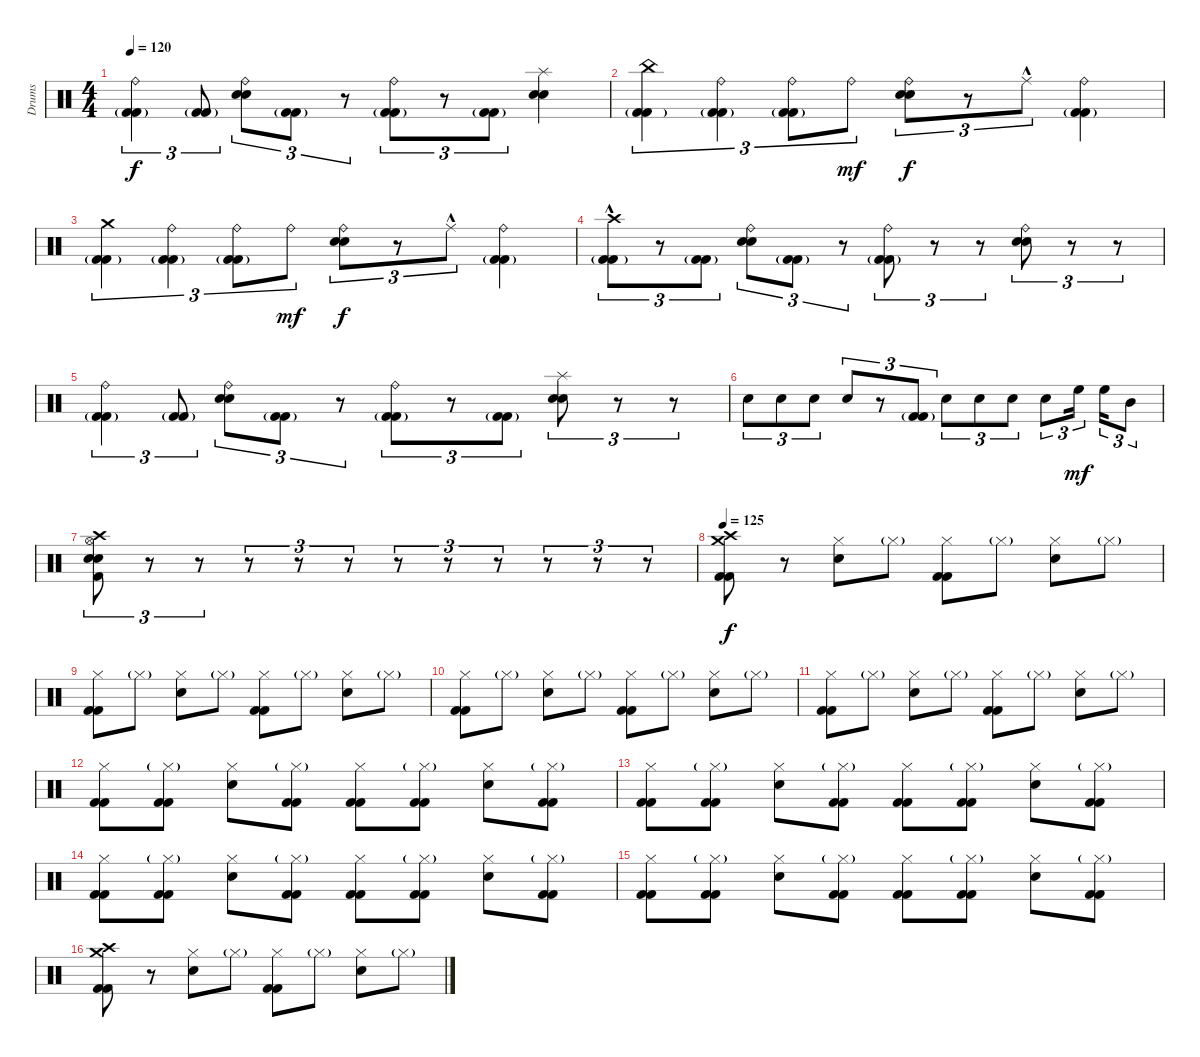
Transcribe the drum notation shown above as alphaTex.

\track ("Drums" "Drums") {instrument percussion}
\staff {score}
\articulation defaults
\ts (4 4)
\tempo 120
\clef neutral
\ks c
("Ride (bell)" "Kick (hit) 2"{g} "Kick (hit) 2").4{tu (3 2) dy f} ("Kick (hit) 2"{g} "Kick (hit) 2").8{tu (3 2)} ("Ride (bell)" "Snare (hit)" "Electric Snare (hit)").8{tu (3 2)} ("Kick (hit) 2"{g} "Kick (hit) 2").8{tu (3 2)} r.8{tu (3 2)} ("Ride (bell)" "Kick (hit) 2"{g} "Kick (hit) 2").8{tu (3 2)} r.8{tu (3 2)} ("Kick (hit) 2"{g} "Kick (hit) 2").8{tu (3 2)} ("Splash (hit)" "Snare (hit)" "Electric Snare (hit)").4 |
("China (hit)" "Kick (hit) 2"{g} "Kick (hit) 2").4{tu (3 2)} ("Ride (bell)" "Kick (hit) 2"{g} "Kick (hit) 2").4{tu (3 2)} ("Ride (bell)" "Kick (hit) 2"{g} "Kick (hit) 2").8{tu (3 2)} "Ride (bell)".8{tu (3 2) dy mf} ("Ride (bell)" "Snare (hit)" "Electric Snare (hit)").8{tu (3 2) dy f} r.8{tu (3 2)} "Ride (middle)"{hac}.8{tu (3 2)} ("Ride (bell)" "Kick (hit) 2"{g} "Kick (hit) 2").4 |
("Crash medium (hit)" "Kick (hit) 2"{g} "Kick (hit) 2").4{tu (3 2)} ("Ride (bell)" "Kick (hit) 2"{g} "Kick (hit) 2").4{tu (3 2)} ("Ride (bell)" "Kick (hit) 2"{g} "Kick (hit) 2").8{tu (3 2)} "Ride (bell)".8{tu (3 2) dy mf} ("Ride (bell)" "Snare (hit)" "Electric Snare (hit)").8{tu (3 2) dy f} r.8{tu (3 2)} "Ride (middle)"{hac}.8{tu (3 2)} ("Ride (bell)" "Kick (hit) 2"{g} "Kick (hit) 2").4 |
("Crash high (hit)"{hac} "Kick (hit) 2"{g} "Kick (hit) 2").8{tu (3 2)} r.8{tu (3 2)} ("Kick (hit) 2"{g} "Kick (hit) 2").8{tu (3 2)} ("Ride (bell)" "Snare (hit)" "Electric Snare (hit)").8{tu (3 2)} ("Kick (hit) 2"{g} "Kick (hit) 2").8{tu (3 2)} r.8{tu (3 2)} ("Ride (bell)" "Kick (hit) 2"{g} "Kick (hit) 2").8{tu (3 2)} r.8{tu (3 2)} r.8{tu (3 2)} ("Ride (bell)" "Snare (hit)" "Electric Snare (hit)").8{tu (3 2)} r.8{tu (3 2)} r.8{tu (3 2)} |
("Ride (bell)" "Kick (hit) 2"{g} "Kick (hit) 2").4{tu (3 2)} ("Kick (hit) 2"{g} "Kick (hit) 2").8{tu (3 2)} ("Ride (bell)" "Snare (hit)" "Electric Snare (hit)").8{tu (3 2)} ("Kick (hit) 2"{g} "Kick (hit) 2").8{tu (3 2)} r.8{tu (3 2)} ("Ride (bell)" "Kick (hit) 2"{g} "Kick (hit) 2").8{tu (3 2)} r.8{tu (3 2)} ("Kick (hit) 2"{g} "Kick (hit) 2").8{tu (3 2)} ("Splash (hit)" "Snare (hit)" "Electric Snare (hit)").8{tu (3 2)} r.8{tu (3 2)} r.8{tu (3 2)} |
"Electric Snare (hit)".8{tu (3 2)} "Electric Snare (hit)".8{tu (3 2)} "Electric Snare (hit)".8{tu (3 2)} "Electric Snare (hit)".8{tu (3 2)} r.8{tu (3 2)} ("Kick (hit) 2"{g} "Kick (hit) 2").8{tu (3 2)} "Electric Snare (hit)".8{tu (3 2)} "Electric Snare (hit)".8{tu (3 2)} "Electric Snare (hit)".8{tu (3 2)} "Electric Snare (hit)".8{tu (3 2)} "High Floor Tom (hit)".16{tu (3 2) dy mf} "High Floor Tom (hit)".16{tu (3 2)} "Mid Tom (hit)".8{tu (3 2)} |
("Hi-Hat (open)" "Crash high (hit)" "Snare (hit)" "Electric Snare (hit)" "Kick (hit) 2").8{tu (3 2)} r.8{tu (3 2)} r.8{tu (3 2)} r.8{tu (3 2)} r.8{tu (3 2)} r.8{tu (3 2)} r.8{tu (3 2)} r.8{tu (3 2)} r.8{tu (3 2)} r.8{tu (3 2)} r.8{tu (3 2)} r.8{tu (3 2)} |
\tempo 125
("Crash high (hit)" "Crash medium (hit)" "Kick (hit) 2" "Kick (hit) 2").8{dy f} r.8 ("Hi-Hat (closed)" "Electric Snare (hit)").8 "Hi-Hat (closed)"{g}.8 ("Hi-Hat (closed)" "Kick (hit) 2" "Kick (hit) 2").8 "Hi-Hat (closed)"{g}.8 ("Hi-Hat (closed)" "Electric Snare (hit)").8 "Hi-Hat (closed)"{g}.8 |
("Hi-Hat (closed)" "Kick (hit) 2" "Kick (hit) 2").8 "Hi-Hat (closed)"{g}.8 ("Hi-Hat (closed)" "Electric Snare (hit)").8 "Hi-Hat (closed)"{g}.8 ("Hi-Hat (closed)" "Kick (hit) 2" "Kick (hit) 2").8 "Hi-Hat (closed)"{g}.8 ("Hi-Hat (closed)" "Electric Snare (hit)").8 "Hi-Hat (closed)"{g}.8 |
("Hi-Hat (closed)" "Kick (hit) 2" "Kick (hit) 2").8 "Hi-Hat (closed)"{g}.8 ("Hi-Hat (closed)" "Electric Snare (hit)").8 "Hi-Hat (closed)"{g}.8 ("Hi-Hat (closed)" "Kick (hit) 2" "Kick (hit) 2").8 "Hi-Hat (closed)"{g}.8 ("Hi-Hat (closed)" "Electric Snare (hit)").8 "Hi-Hat (closed)"{g}.8 |
("Hi-Hat (closed)" "Kick (hit) 2" "Kick (hit) 2").8 "Hi-Hat (closed)"{g}.8 ("Hi-Hat (closed)" "Electric Snare (hit)").8 "Hi-Hat (closed)"{g}.8 ("Hi-Hat (closed)" "Kick (hit) 2" "Kick (hit) 2").8 "Hi-Hat (closed)"{g}.8 ("Hi-Hat (closed)" "Electric Snare (hit)").8 "Hi-Hat (closed)"{g}.8 |
("Hi-Hat (closed)" "Kick (hit) 2" "Kick (hit) 2").8 ("Hi-Hat (closed)"{g} "Kick (hit) 2" "Kick (hit) 2").8 ("Hi-Hat (closed)" "Electric Snare (hit)").8 ("Hi-Hat (closed)"{g} "Kick (hit) 2" "Kick (hit) 2").8 ("Hi-Hat (closed)" "Kick (hit) 2" "Kick (hit) 2").8 ("Hi-Hat (closed)"{g} "Kick (hit) 2" "Kick (hit) 2").8 ("Hi-Hat (closed)" "Electric Snare (hit)").8 ("Hi-Hat (closed)"{g} "Kick (hit) 2" "Kick (hit) 2").8 |
("Hi-Hat (closed)" "Kick (hit) 2" "Kick (hit) 2").8 ("Hi-Hat (closed)"{g} "Kick (hit) 2" "Kick (hit) 2").8 ("Hi-Hat (closed)" "Electric Snare (hit)").8 ("Hi-Hat (closed)"{g} "Kick (hit) 2" "Kick (hit) 2").8 ("Hi-Hat (closed)" "Kick (hit) 2" "Kick (hit) 2").8 ("Hi-Hat (closed)"{g} "Kick (hit) 2" "Kick (hit) 2").8 ("Hi-Hat (closed)" "Electric Snare (hit)").8 ("Hi-Hat (closed)"{g} "Kick (hit) 2" "Kick (hit) 2").8 |
("Hi-Hat (closed)" "Kick (hit) 2" "Kick (hit) 2").8 ("Hi-Hat (closed)"{g} "Kick (hit) 2" "Kick (hit) 2").8 ("Hi-Hat (closed)" "Electric Snare (hit)").8 ("Hi-Hat (closed)"{g} "Kick (hit) 2" "Kick (hit) 2").8 ("Hi-Hat (closed)" "Kick (hit) 2" "Kick (hit) 2").8 ("Hi-Hat (closed)"{g} "Kick (hit) 2" "Kick (hit) 2").8 ("Hi-Hat (closed)" "Electric Snare (hit)").8 ("Hi-Hat (closed)"{g} "Kick (hit) 2" "Kick (hit) 2").8 |
("Hi-Hat (closed)" "Kick (hit) 2" "Kick (hit) 2").8 ("Hi-Hat (closed)"{g} "Kick (hit) 2" "Kick (hit) 2").8 ("Hi-Hat (closed)" "Electric Snare (hit)").8 ("Hi-Hat (closed)"{g} "Kick (hit) 2" "Kick (hit) 2").8 ("Hi-Hat (closed)" "Kick (hit) 2" "Kick (hit) 2").8 ("Hi-Hat (closed)"{g} "Kick (hit) 2" "Kick (hit) 2").8 ("Hi-Hat (closed)" "Electric Snare (hit)").8 ("Hi-Hat (closed)"{g} "Kick (hit) 2" "Kick (hit) 2").8 |
("Crash high (hit)" "Crash medium (hit)" "Kick (hit) 2" "Kick (hit) 2").8 r.8 ("Hi-Hat (closed)" "Electric Snare (hit)").8 "Hi-Hat (closed)"{g}.8 ("Hi-Hat (closed)" "Kick (hit) 2" "Kick (hit) 2").8 "Hi-Hat (closed)"{g}.8 ("Hi-Hat (closed)" "Electric Snare (hit)").8 "Hi-Hat (closed)"{g}.8
